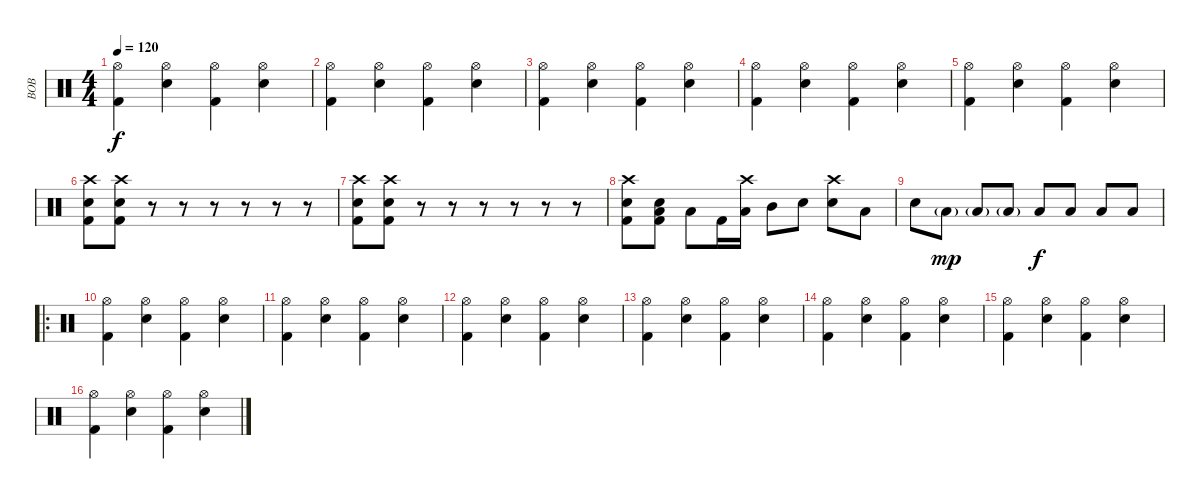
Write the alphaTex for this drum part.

\track ("BOB" "BOB") {instrument percussion}
\staff {score}
\articulation defaults
\ts (4 4)
\tempo 120
\clef neutral
\ks c
("Hi-Hat (open)" "Kick (hit) 2").4{dy f} ("Hi-Hat (open)" "Electric Snare (hit)").4 ("Hi-Hat (open)" "Kick (hit) 2").4 ("Hi-Hat (open)" "Electric Snare (hit)").4 |
("Hi-Hat (open)" "Kick (hit) 2").4 ("Hi-Hat (open)" "Electric Snare (hit)").4 ("Hi-Hat (open)" "Kick (hit) 2").4 ("Hi-Hat (open)" "Electric Snare (hit)").4 |
("Hi-Hat (open)" "Kick (hit) 2").4 ("Hi-Hat (open)" "Electric Snare (hit)").4 ("Hi-Hat (open)" "Kick (hit) 2").4 ("Hi-Hat (open)" "Electric Snare (hit)").4 |
("Hi-Hat (open)" "Kick (hit) 2").4 ("Hi-Hat (open)" "Electric Snare (hit)").4 ("Hi-Hat (open)" "Kick (hit) 2").4 ("Hi-Hat (open)" "Electric Snare (hit)").4 |
("Hi-Hat (open)" "Kick (hit) 2").4 ("Hi-Hat (open)" "Electric Snare (hit)").4 ("Hi-Hat (open)" "Kick (hit) 2").4 ("Hi-Hat (open)" "Electric Snare (hit)").4 |
("Crash high (hit)" "Electric Snare (hit)" "Kick (hit) 2").8 ("Crash high (hit)" "Electric Snare (hit)" "Kick (hit) 2").8 r.8 r.8 r.8 r.8 r.8 r.8 |
("Crash high (hit)" "Electric Snare (hit)" "Kick (hit) 2").8 ("Crash high (hit)" "Electric Snare (hit)" "Kick (hit) 2").8 r.8 r.8 r.8 r.8 r.8 r.8 |
("Crash high (hit)" "Electric Snare (hit)" "Kick (hit) 2").8 ("Electric Snare (hit)" "Low Tom (hit)" "Kick (hit) 2").8 "Low Tom (hit)".8 "Kick (hit) 2".16 ("Crash high (hit)" "Low Tom (hit)").16 "Mid Tom (hit)".8 "Electric Snare (hit)".8 ("Crash high (hit)" "Electric Snare (hit)").8 "Low Tom (hit)".8 |
"Electric Snare (hit)".8 "Low Tom (hit)"{g}.8{dy mp} "Low Tom (hit)"{g}.8 "Low Tom (hit)"{g}.8 "Low Tom (hit)".8{dy f} "Low Tom (hit)".8 "Low Tom (hit)".8 "Low Tom (hit)".8 |
\ro
("Hi-Hat (open)" "Kick (hit) 2").4 ("Hi-Hat (open)" "Electric Snare (hit)").4 ("Hi-Hat (open)" "Kick (hit) 2").4 ("Hi-Hat (open)" "Electric Snare (hit)").4 |
("Hi-Hat (open)" "Kick (hit) 2").4 ("Hi-Hat (open)" "Electric Snare (hit)").4 ("Hi-Hat (open)" "Kick (hit) 2").4 ("Hi-Hat (open)" "Electric Snare (hit)").4 |
("Hi-Hat (open)" "Kick (hit) 2").4 ("Hi-Hat (open)" "Electric Snare (hit)").4 ("Hi-Hat (open)" "Kick (hit) 2").4 ("Hi-Hat (open)" "Electric Snare (hit)").4 |
("Hi-Hat (open)" "Kick (hit) 2").4 ("Hi-Hat (open)" "Electric Snare (hit)").4 ("Hi-Hat (open)" "Kick (hit) 2").4 ("Hi-Hat (open)" "Electric Snare (hit)").4 |
("Hi-Hat (open)" "Kick (hit) 2").4 ("Hi-Hat (open)" "Electric Snare (hit)").4 ("Hi-Hat (open)" "Kick (hit) 2").4 ("Hi-Hat (open)" "Electric Snare (hit)").4 |
("Hi-Hat (open)" "Kick (hit) 2").4 ("Hi-Hat (open)" "Electric Snare (hit)").4 ("Hi-Hat (open)" "Kick (hit) 2").4 ("Hi-Hat (open)" "Electric Snare (hit)").4 |
("Hi-Hat (open)" "Kick (hit) 2").4 ("Hi-Hat (open)" "Electric Snare (hit)").4 ("Hi-Hat (open)" "Kick (hit) 2").4 ("Hi-Hat (open)" "Electric Snare (hit)").4
